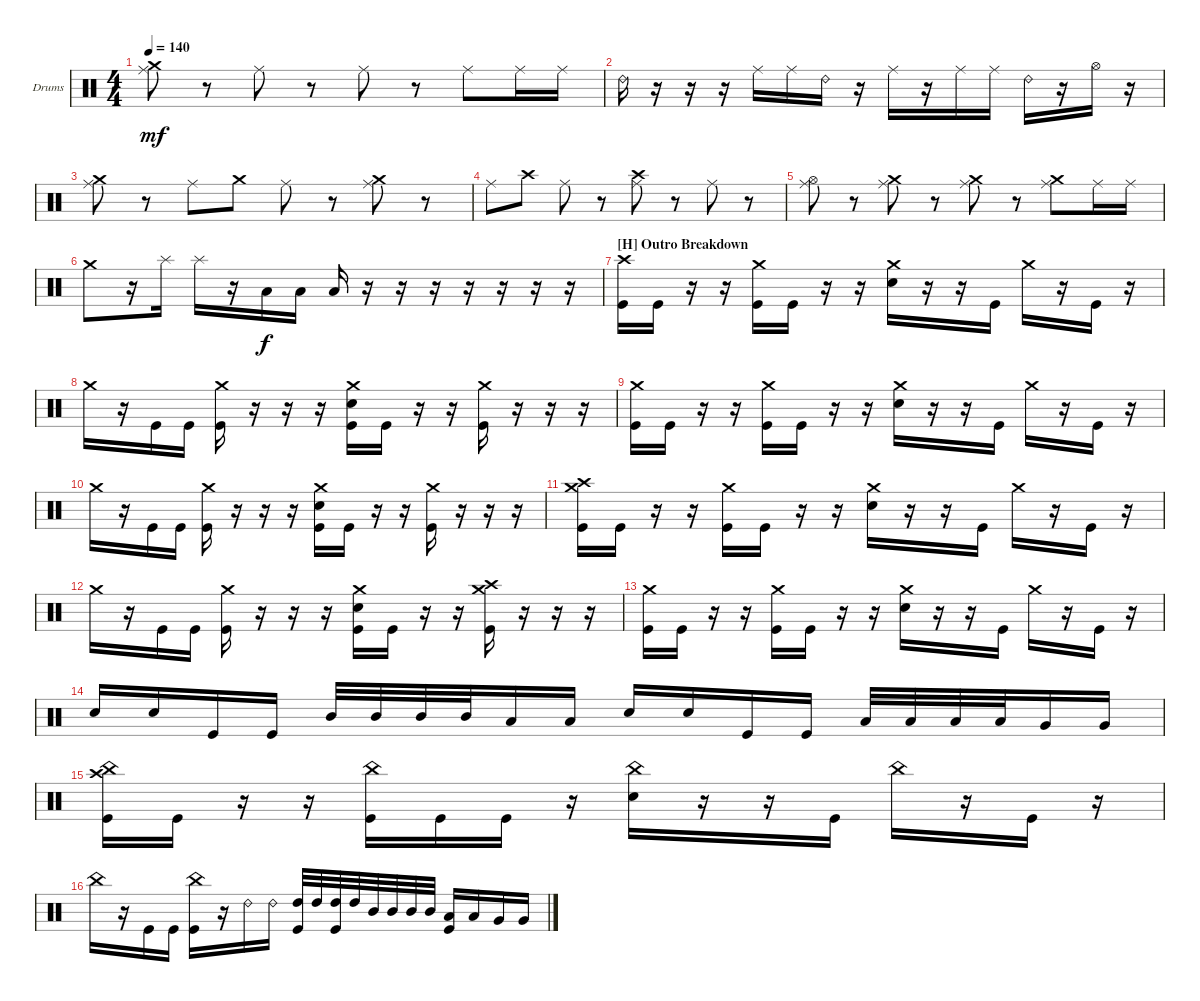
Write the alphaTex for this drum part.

\bracketExtendMode groupsimilarinstruments
\firstSystemTrackNameOrientation horizontal
\otherSystemsTrackNameOrientation horizontal
\track ("Drumkit" "Drums") {instrument percussion}
\staff {score}
\articulation defaults
\ts (4 4)
\tempo 140
\clef neutral
\ks c
("Crash medium (hit)" "Ride (middle)").8{dy mf} r.8 "Ride (middle)".8 r.8 "Ride (middle)".8 r.8 "Ride (middle)".8 "Ride (middle)".16 "Ride (middle)".16 |
"Ride (bell) 2".16 r.16 r.16 r.16 "Ride (middle)".16 "Ride (middle)".16 "Ride (bell) 2".16 r.16 "Ride (middle)".16 r.16 "Ride (middle)".16 "Ride (middle)".16 "Ride (bell) 2".16 r.16 "Hi-Hat (open)".16 r.16 |
("Ride (middle)" "Crash medium (hit)").8 r.8 "Ride (middle)".8 "Crash medium (hit)".8 "Ride (middle)".8 r.8 ("Ride (middle)" "Crash medium (hit)").8 r.8 |
"Ride (middle)".8 "Crash high (hit)".8 "Ride (middle)".8 r.8 ("Ride (middle)" "Crash high (hit)").8 r.8 "Ride (middle)".8 r.8 |
("Ride (middle)" "Hi-Hat (open)").8 r.8 ("Ride (middle)" "Crash medium (hit)").8 r.8 ("Ride (middle)" "Crash medium (hit)").8 r.8 ("Ride (middle)" "Crash medium (hit)").8 "Ride (middle)".16 "Ride (middle)".16 |
"Crash medium (hit)".8 r.16 "Splash (hit)".16 "Splash (hit)".16 r.16 "Low Tom (hit)".16{dy f} "Low Tom (hit)".16 "Low Tom (hit)".16 r.16 r.16 r.16 r.16 r.16 r.16 r.16 |
\section ("H" "Outro Breakdown")
("Kick (hit)" "Crash high (hit)").16 "Kick (hit)".16 r.16 r.16 ("Kick (hit)" "Crash medium (hit)").16 "Kick (hit)".16 r.16 r.16 ("Snare (hit) 2" "Crash medium (hit)").16 r.16 r.16 "Kick (hit)".16 "Crash medium (hit)".16 r.16 "Kick (hit)".16 r.16 |
"Crash medium (hit)".16 r.16 "Kick (hit)".16 "Kick (hit)".16 ("Crash medium (hit)" "Kick (hit)").16 r.16 r.16 r.16 ("Crash medium (hit)" "Kick (hit)" "Snare (hit) 2").16 "Kick (hit)".16 r.16 r.16 ("Crash medium (hit)" "Kick (hit)").16 r.16 r.16 r.16 |
("Kick (hit)" "Crash medium (hit)").16 "Kick (hit)".16 r.16 r.16 ("Kick (hit)" "Crash medium (hit)").16 "Kick (hit)".16 r.16 r.16 ("Snare (hit) 2" "Crash medium (hit)").16 r.16 r.16 "Kick (hit)".16 "Crash medium (hit)".16 r.16 "Kick (hit)".16 r.16 |
"Crash medium (hit)".16 r.16 "Kick (hit)".16 "Kick (hit)".16 ("Crash medium (hit)" "Kick (hit)").16 r.16 r.16 r.16 ("Crash medium (hit)" "Kick (hit)" "Snare (hit) 2").16 "Kick (hit)".16 r.16 r.16 ("Crash medium (hit)" "Kick (hit)").16 r.16 r.16 r.16 |
("Kick (hit)" "Crash medium (hit)" "Crash high (hit)").16 "Kick (hit)".16 r.16 r.16 ("Kick (hit)" "Crash medium (hit)").16 "Kick (hit)".16 r.16 r.16 ("Snare (hit) 2" "Crash medium (hit)").16 r.16 r.16 "Kick (hit)".16 "Crash medium (hit)".16 r.16 "Kick (hit)".16 r.16 |
"Crash medium (hit)".16 r.16 "Kick (hit)".16 "Kick (hit)".16 ("Crash medium (hit)" "Kick (hit)").16 r.16 r.16 r.16 ("Crash medium (hit)" "Kick (hit)" "Snare (hit) 2").16 "Kick (hit)".16 r.16 r.16 ("Crash medium (hit)" "Kick (hit)" "Crash high (hit)").16 r.16 r.16 r.16 |
("Kick (hit)" "Crash medium (hit)").16 "Kick (hit)".16 r.16 r.16 ("Kick (hit)" "Crash medium (hit)").16 "Kick (hit)".16 r.16 r.16 ("Snare (hit) 2" "Crash medium (hit)").16 r.16 r.16 "Kick (hit)".16 "Crash medium (hit)".16 r.16 "Kick (hit)".16 r.16 |
"Snare (hit) 2".16 "Snare (hit) 2".16 "Kick (hit)".16 "Kick (hit)".16 "Mid Tom (hit)".32 "Mid Tom (hit)".32 "Mid Tom (hit)".32 "Mid Tom (hit)".32 "Low Tom (hit)".16 "Low Tom (hit)".16 "Snare (hit) 2".16 "Snare (hit) 2".16 "Kick (hit)".16 "Kick (hit)".16 "Low Tom (hit)".32 "Low Tom (hit)".32 "Low Tom (hit)".32 "Low Tom (hit)".32 "Very Low Tom (hit)".16 "Very Low Tom (hit)".16 |
("Kick (hit)" "Crash high (hit)" "China (hit)").16 "Kick (hit)".16 r.16 r.16 ("Kick (hit)" "China (hit)").16 "Kick (hit)".16 "Kick (hit)".16 r.16 ("Snare (hit) 2" "China (hit)").16 r.16 r.16 "Kick (hit)".16 "China (hit)".16 r.16 "Kick (hit)".16 r.16 |
"China (hit)".16 r.16 "Kick (hit)".16 "Kick (hit)".16 ("Kick (hit)" "China (hit)").16 r.16 "Ride (bell) 2".16 "Ride (bell) 2".16 ("High Tom (hit)" "Kick (hit)").32 "High Tom (hit)".32 ("High Tom (hit)" "Kick (hit)").32 "High Tom (hit)".32 "Mid Tom (hit)".32 "Mid Tom (hit)".32 "Mid Tom (hit)".32 "Mid Tom (hit)".32 ("Low Tom (hit)" "Kick (hit)").16 "Low Tom (hit)".16 "Very Low Tom (hit)".16 "Very Low Tom (hit)".16
